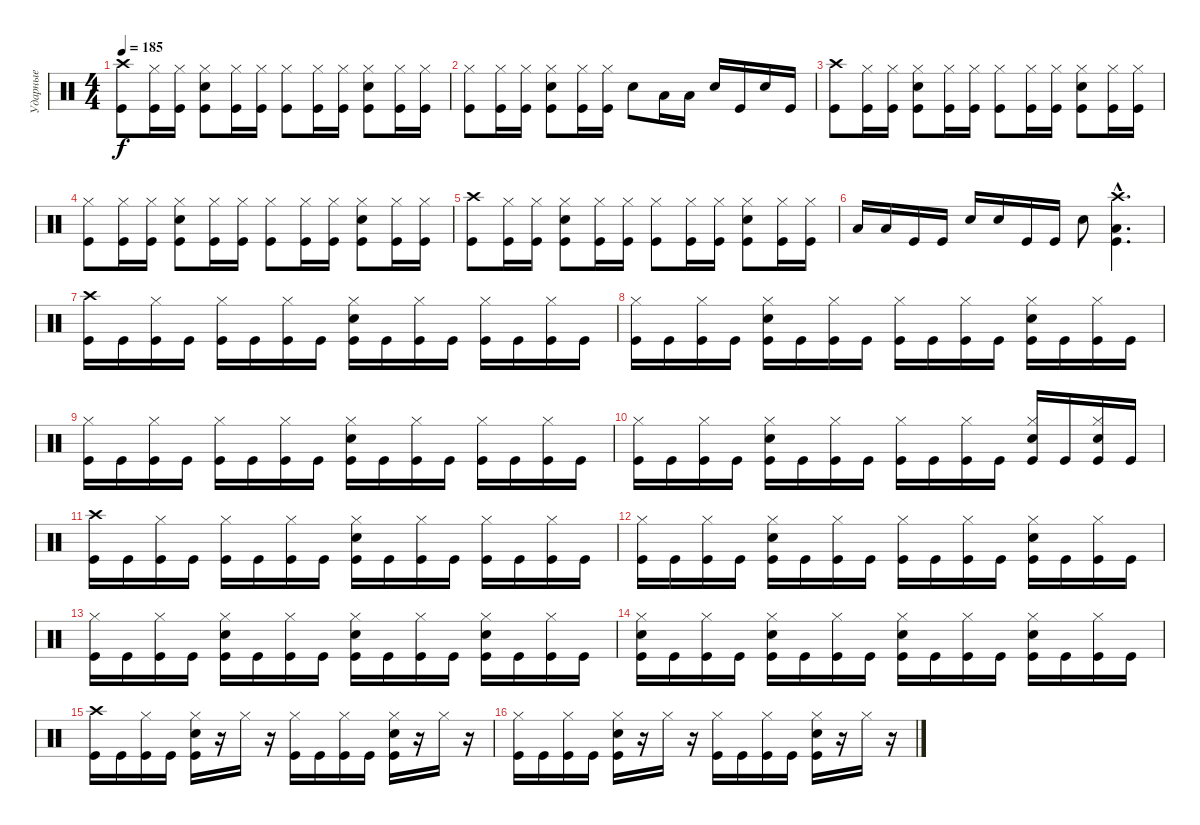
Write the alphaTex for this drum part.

\track ("Ударные" "Ударные") {instrument percussion}
\staff {score}
\articulation defaults
\ts (4 4)
\tempo 185
\clef neutral
\ks c
("Crash high (hit)" "Kick (hit)").8{dy f} ("Hi-Hat (closed)" "Kick (hit)").16 ("Hi-Hat (closed)" "Kick (hit)").16 ("Hi-Hat (closed)" "Electric Snare (hit)" "Kick (hit)").8 ("Hi-Hat (closed)" "Kick (hit)").16 ("Hi-Hat (closed)" "Kick (hit)").16 ("Hi-Hat (closed)" "Kick (hit)").8 ("Hi-Hat (closed)" "Kick (hit)").16 ("Hi-Hat (closed)" "Kick (hit)").16 ("Hi-Hat (closed)" "Electric Snare (hit)" "Kick (hit)").8 ("Hi-Hat (closed)" "Kick (hit)").16 ("Hi-Hat (closed)" "Kick (hit)").16 |
("Hi-Hat (closed)" "Kick (hit)").8 ("Hi-Hat (closed)" "Kick (hit)").16 ("Hi-Hat (closed)" "Kick (hit)").16 ("Hi-Hat (closed)" "Electric Snare (hit)" "Kick (hit)").8 ("Hi-Hat (closed)" "Kick (hit)").16 ("Hi-Hat (closed)" "Kick (hit)").16 "Electric Snare (hit)".8 "Low Tom (hit)".16 "Low Tom (hit)".16 "Electric Snare (hit)".16 "Kick (hit)".16 "Electric Snare (hit)".16 "Kick (hit)".16 |
("Crash high (hit)" "Kick (hit)").8 ("Hi-Hat (closed)" "Kick (hit)").16 ("Hi-Hat (closed)" "Kick (hit)").16 ("Hi-Hat (closed)" "Electric Snare (hit)" "Kick (hit)").8 ("Hi-Hat (closed)" "Kick (hit)").16 ("Hi-Hat (closed)" "Kick (hit)").16 ("Hi-Hat (closed)" "Kick (hit)").8 ("Hi-Hat (closed)" "Kick (hit)").16 ("Hi-Hat (closed)" "Kick (hit)").16 ("Hi-Hat (closed)" "Electric Snare (hit)" "Kick (hit)").8 ("Hi-Hat (closed)" "Kick (hit)").16 ("Hi-Hat (closed)" "Kick (hit)").16 |
("Hi-Hat (closed)" "Kick (hit)").8 ("Hi-Hat (closed)" "Kick (hit)").16 ("Hi-Hat (closed)" "Kick (hit)").16 ("Hi-Hat (closed)" "Electric Snare (hit)" "Kick (hit)").8 ("Hi-Hat (closed)" "Kick (hit)").16 ("Hi-Hat (closed)" "Kick (hit)").16 ("Hi-Hat (closed)" "Kick (hit)").8 ("Hi-Hat (closed)" "Kick (hit)").16 ("Hi-Hat (closed)" "Kick (hit)").16 ("Hi-Hat (closed)" "Electric Snare (hit)" "Kick (hit)").8 ("Hi-Hat (closed)" "Kick (hit)").16 ("Hi-Hat (closed)" "Kick (hit)").16 |
("Crash high (hit)" "Kick (hit)").8 ("Hi-Hat (closed)" "Kick (hit)").16 ("Hi-Hat (closed)" "Kick (hit)").16 ("Hi-Hat (closed)" "Electric Snare (hit)" "Kick (hit)").8 ("Hi-Hat (closed)" "Kick (hit)").16 ("Hi-Hat (closed)" "Kick (hit)").16 ("Hi-Hat (closed)" "Kick (hit)").8 ("Hi-Hat (closed)" "Kick (hit)").16 ("Hi-Hat (closed)" "Kick (hit)").16 ("Hi-Hat (closed)" "Electric Snare (hit)" "Kick (hit)").8 ("Hi-Hat (closed)" "Kick (hit)").16 ("Hi-Hat (closed)" "Kick (hit)").16 |
"Low Tom (hit)".16 "Low Tom (hit)".16 "Kick (hit)".16 "Kick (hit)".16 "Electric Snare (hit)".16 "Electric Snare (hit)".16 "Kick (hit)".16 "Kick (hit)".16 "Electric Snare (hit)".8 ("Crash high (hit)"{hac} "Low Tom (hit)"{hac} "Kick (hit)"{hac}).4{d} |
("Crash high (hit)" "Kick (hit)").16 "Kick (hit)".16 ("Hi-Hat (closed)" "Kick (hit)").16 "Kick (hit)".16 ("Hi-Hat (closed)" "Kick (hit)").16 "Kick (hit)".16 ("Hi-Hat (closed)" "Kick (hit)").16 "Kick (hit)".16 ("Hi-Hat (closed)" "Electric Snare (hit)" "Kick (hit)").16 "Kick (hit)".16 ("Hi-Hat (closed)" "Kick (hit)").16 "Kick (hit)".16 ("Hi-Hat (closed)" "Kick (hit)").16 "Kick (hit)".16 ("Hi-Hat (closed)" "Kick (hit)").16 "Kick (hit)".16 |
("Hi-Hat (closed)" "Kick (hit)").16 "Kick (hit)".16 ("Hi-Hat (closed)" "Kick (hit)").16 "Kick (hit)".16 ("Hi-Hat (closed)" "Electric Snare (hit)" "Kick (hit)").16 "Kick (hit)".16 ("Hi-Hat (closed)" "Kick (hit)").16 "Kick (hit)".16 ("Hi-Hat (closed)" "Kick (hit)").16 "Kick (hit)".16 ("Hi-Hat (closed)" "Kick (hit)").16 "Kick (hit)".16 ("Hi-Hat (closed)" "Electric Snare (hit)" "Kick (hit)").16 "Kick (hit)".16 ("Hi-Hat (closed)" "Kick (hit)").16 "Kick (hit)".16 |
("Hi-Hat (closed)" "Kick (hit)").16 "Kick (hit)".16 ("Hi-Hat (closed)" "Kick (hit)").16 "Kick (hit)".16 ("Hi-Hat (closed)" "Kick (hit)").16 "Kick (hit)".16 ("Hi-Hat (closed)" "Kick (hit)").16 "Kick (hit)".16 ("Hi-Hat (closed)" "Electric Snare (hit)" "Kick (hit)").16 "Kick (hit)".16 ("Hi-Hat (closed)" "Kick (hit)").16 "Kick (hit)".16 ("Hi-Hat (closed)" "Kick (hit)").16 "Kick (hit)".16 ("Hi-Hat (closed)" "Kick (hit)").16 "Kick (hit)".16 |
("Hi-Hat (closed)" "Kick (hit)").16 "Kick (hit)".16 ("Hi-Hat (closed)" "Kick (hit)").16 "Kick (hit)".16 ("Hi-Hat (closed)" "Electric Snare (hit)" "Kick (hit)").16 "Kick (hit)".16 ("Hi-Hat (closed)" "Kick (hit)").16 "Kick (hit)".16 ("Hi-Hat (closed)" "Kick (hit)").16 "Kick (hit)".16 ("Hi-Hat (closed)" "Kick (hit)").16 "Kick (hit)".16 ("Hi-Hat (closed)" "Electric Snare (hit)" "Kick (hit)").16 "Kick (hit)".16 ("Hi-Hat (closed)" "Electric Snare (hit)" "Kick (hit)").16 "Kick (hit)".16 |
("Crash high (hit)" "Kick (hit)").16 "Kick (hit)".16 ("Hi-Hat (closed)" "Kick (hit)").16 "Kick (hit)".16 ("Hi-Hat (closed)" "Kick (hit)").16 "Kick (hit)".16 ("Hi-Hat (closed)" "Kick (hit)").16 "Kick (hit)".16 ("Hi-Hat (closed)" "Electric Snare (hit)" "Kick (hit)").16 "Kick (hit)".16 ("Hi-Hat (closed)" "Kick (hit)").16 "Kick (hit)".16 ("Hi-Hat (closed)" "Kick (hit)").16 "Kick (hit)".16 ("Hi-Hat (closed)" "Kick (hit)").16 "Kick (hit)".16 |
("Hi-Hat (closed)" "Kick (hit)").16 "Kick (hit)".16 ("Hi-Hat (closed)" "Kick (hit)").16 "Kick (hit)".16 ("Hi-Hat (closed)" "Electric Snare (hit)" "Kick (hit)").16 "Kick (hit)".16 ("Hi-Hat (closed)" "Kick (hit)").16 "Kick (hit)".16 ("Hi-Hat (closed)" "Kick (hit)").16 "Kick (hit)".16 ("Hi-Hat (closed)" "Kick (hit)").16 "Kick (hit)".16 ("Hi-Hat (closed)" "Electric Snare (hit)" "Kick (hit)").16 "Kick (hit)".16 ("Hi-Hat (closed)" "Kick (hit)").16 "Kick (hit)".16 |
("Hi-Hat (closed)" "Kick (hit)").16 "Kick (hit)".16 ("Hi-Hat (closed)" "Kick (hit)").16 "Kick (hit)".16 ("Hi-Hat (closed)" "Electric Snare (hit)" "Kick (hit)").16 "Kick (hit)".16 ("Hi-Hat (closed)" "Kick (hit)").16 "Kick (hit)".16 ("Hi-Hat (closed)" "Electric Snare (hit)" "Kick (hit)").16 "Kick (hit)".16 ("Hi-Hat (closed)" "Kick (hit)").16 "Kick (hit)".16 ("Hi-Hat (closed)" "Electric Snare (hit)" "Kick (hit)").16 "Kick (hit)".16 ("Hi-Hat (closed)" "Kick (hit)").16 "Kick (hit)".16 |
("Hi-Hat (closed)" "Electric Snare (hit)" "Kick (hit)").16 "Kick (hit)".16 ("Hi-Hat (closed)" "Kick (hit)").16 "Kick (hit)".16 ("Hi-Hat (closed)" "Electric Snare (hit)" "Kick (hit)").16 "Kick (hit)".16 ("Hi-Hat (closed)" "Kick (hit)").16 "Kick (hit)".16 ("Hi-Hat (closed)" "Electric Snare (hit)" "Kick (hit)").16 "Kick (hit)".16 ("Hi-Hat (closed)" "Kick (hit)").16 "Kick (hit)".16 ("Hi-Hat (closed)" "Electric Snare (hit)" "Kick (hit)").16 "Kick (hit)".16 ("Hi-Hat (closed)" "Kick (hit)").16 "Kick (hit)".16 |
("Crash high (hit)" "Kick (hit)").16 "Kick (hit)".16 ("Hi-Hat (closed)" "Kick (hit)").16 "Kick (hit)".16 ("Hi-Hat (closed)" "Electric Snare (hit)" "Kick (hit)").16 r.16 "Hi-Hat (closed)".16 r.16 ("Hi-Hat (closed)" "Kick (hit)").16 "Kick (hit)".16 ("Hi-Hat (closed)" "Kick (hit)").16 "Kick (hit)".16 ("Hi-Hat (closed)" "Electric Snare (hit)" "Kick (hit)").16 r.16 "Hi-Hat (closed)".16 r.16 |
("Hi-Hat (closed)" "Kick (hit)").16 "Kick (hit)".16 ("Hi-Hat (closed)" "Kick (hit)").16 "Kick (hit)".16 ("Hi-Hat (closed)" "Electric Snare (hit)" "Kick (hit)").16 r.16 "Hi-Hat (closed)".16 r.16 ("Hi-Hat (closed)" "Kick (hit)").16 "Kick (hit)".16 ("Hi-Hat (closed)" "Kick (hit)").16 "Kick (hit)".16 ("Hi-Hat (closed)" "Electric Snare (hit)" "Kick (hit)").16 r.16 "Hi-Hat (closed)".16 r.16
